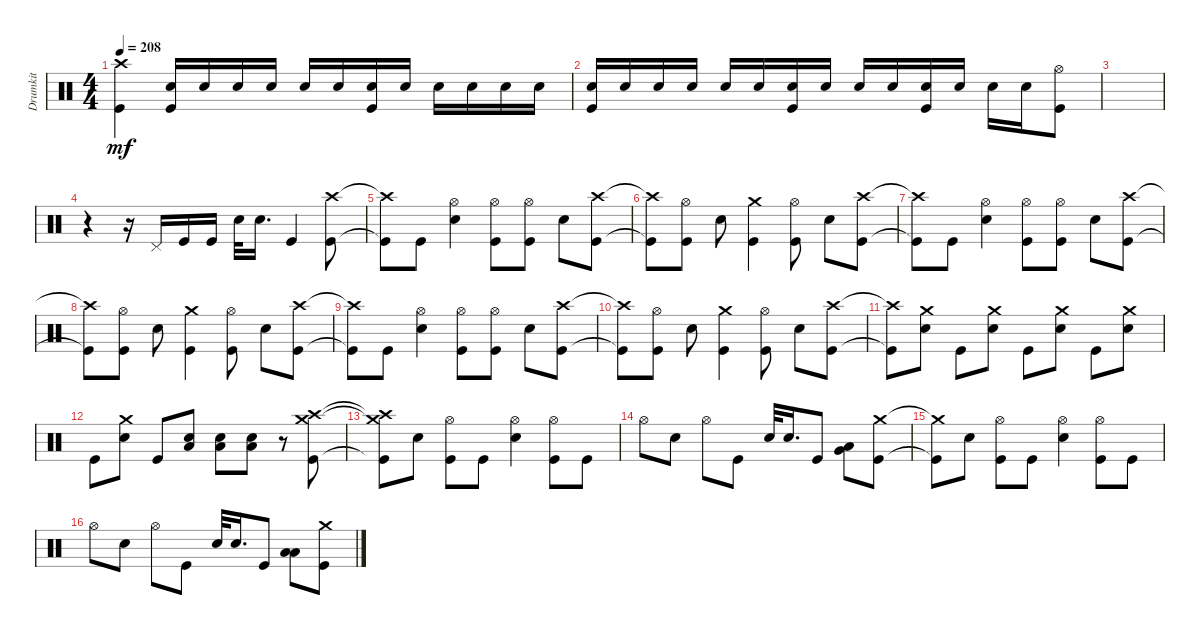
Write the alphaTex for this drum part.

\track ("Drumkit" "Drumkit") {instrument percussion}
\staff {score}
\articulation defaults
\ts (4 4)
\tempo 208
\clef neutral
\ks c
("Kick (hit)" "Crash high (hit)").4{dy mf} ("Kick (hit)" "Snare (hit) 2").16 "Snare (hit) 2".16 "Snare (hit) 2".16 "Snare (hit) 2".16 "Snare (hit) 2".16 "Snare (hit) 2".16 ("Snare (hit) 2" "Kick (hit)").16 "Snare (hit) 2".16 "Snare (hit) 2".16 "Snare (hit) 2".16 "Snare (hit) 2".16 "Snare (hit) 2".16 |
("Snare (hit) 2" "Kick (hit)").16 "Snare (hit) 2".16 "Snare (hit) 2".16 "Snare (hit) 2".16 "Snare (hit) 2".16 "Snare (hit) 2".16 ("Snare (hit) 2" "Kick (hit)").16 "Snare (hit) 2".16 "Snare (hit) 2".16 "Snare (hit) 2".16 ("Snare (hit) 2" "Kick (hit)").16 "Snare (hit) 2".16 "Snare (hit) 2".16 "Snare (hit) 2".16 ("Kick (hit)" "Hi-Hat (open)").8 |
|
r.4 r.16 "Pedal Hi-Hat (hit)".16 "Kick (hit)".16 "Kick (hit)".16 "Snare (hit) 2".32 "Snare (hit) 2".16{d} "Kick (hit)".4 ("Kick (hit)" "Crash high (hit)").8 |
("Kick (hit)"{t} "Crash high (hit)"{t}).8 "Kick (hit)".8 ("Snare (hit) 2" "Hi-Hat (open)").4 ("Hi-Hat (open)" "Kick (hit)").8 ("Kick (hit)" "Hi-Hat (open)").8 "Snare (hit) 2".8 ("Kick (hit)" "Crash high (hit)").8 |
("Kick (hit)"{t} "Crash high (hit)"{t}).8 ("Kick (hit)" "Hi-Hat (open)").8 "Snare (hit) 2".8 ("Kick (hit)" "Crash medium (hit)").4 ("Kick (hit)" "Hi-Hat (open)").8 "Snare (hit) 2".8 ("Kick (hit)" "Crash high (hit)").8 |
("Kick (hit)"{t} "Crash high (hit)"{t}).8 "Kick (hit)".8 ("Snare (hit) 2" "Hi-Hat (open)").4 ("Hi-Hat (open)" "Kick (hit)").8 ("Kick (hit)" "Hi-Hat (open)").8 "Snare (hit) 2".8 ("Kick (hit)" "Crash high (hit)").8 |
("Kick (hit)"{t} "Crash high (hit)"{t}).8 ("Kick (hit)" "Hi-Hat (open)").8 "Snare (hit) 2".8 ("Kick (hit)" "Crash medium (hit)").4 ("Kick (hit)" "Hi-Hat (open)").8 "Snare (hit) 2".8 ("Kick (hit)" "Crash high (hit)").8 |
("Kick (hit)"{t} "Crash high (hit)"{t}).8 "Kick (hit)".8 ("Snare (hit) 2" "Hi-Hat (open)").4 ("Hi-Hat (open)" "Kick (hit)").8 ("Kick (hit)" "Hi-Hat (open)").8 "Snare (hit) 2".8 ("Kick (hit)" "Crash high (hit)").8 |
("Kick (hit)"{t} "Crash high (hit)"{t}).8 ("Kick (hit)" "Hi-Hat (open)").8 "Snare (hit) 2".8 ("Kick (hit)" "Crash medium (hit)").4 ("Kick (hit)" "Hi-Hat (open)").8 "Snare (hit) 2".8 ("Kick (hit)" "Crash high (hit)").8 |
("Kick (hit)"{t} "Crash high (hit)"{t}).8 ("Snare (hit) 2" "Crash medium (hit)").8 "Kick (hit)".8 ("Snare (hit) 2" "Crash medium (hit)").8 "Kick (hit)".8 ("Snare (hit) 2" "Crash medium (hit)").8 "Kick (hit)".8 ("Snare (hit) 2" "Crash medium (hit)").8 |
"Kick (hit)".8 ("Snare (hit) 2" "Crash medium (hit)").8 "Kick (hit)".8 ("Snare (hit) 2" "Low Floor Tom (hit)").8 ("Snare (hit) 2" "Low Floor Tom (hit)").8 ("Snare (hit) 2" "Low Floor Tom (hit)").8 r.8 ("Kick (hit)" "Crash high (hit)" "Crash medium (hit)").8 |
("Kick (hit)"{t} "Crash high (hit)"{t} "Crash medium (hit)"{t}).8 "Snare (hit) 2".8 ("Kick (hit)" "Hi-Hat (open)").8 "Kick (hit)".8 ("Snare (hit) 2" "Hi-Hat (open)").4 ("Kick (hit)" "Hi-Hat (open)").8 "Kick (hit)".8 |
"Hi-Hat (open)".8 "Snare (hit) 2".8 "Hi-Hat (open)".8 "Kick (hit)".8 "Snare (hit) 2".32 "Snare (hit) 2".16{d} "Kick (hit)".8 ("Very Low Tom (hit)" "Low Tom (hit)").8 ("Kick (hit)" "Crash medium (hit)").8 |
("Kick (hit)"{t} "Crash medium (hit)"{t}).8 "Snare (hit) 2".8 ("Kick (hit)" "Hi-Hat (open)").8 "Kick (hit)".8 ("Snare (hit) 2" "Hi-Hat (open)").4 ("Kick (hit)" "Hi-Hat (open)").8 "Kick (hit)".8 |
"Hi-Hat (open)".8 "Snare (hit) 2".8 "Hi-Hat (open)".8 "Kick (hit)".8 "Snare (hit) 2".32 "Snare (hit) 2".16{d} "Kick (hit)".8 ("Low Tom (hit)" "Low Floor Tom (hit)").8 ("Kick (hit)" "Crash medium (hit)").8
